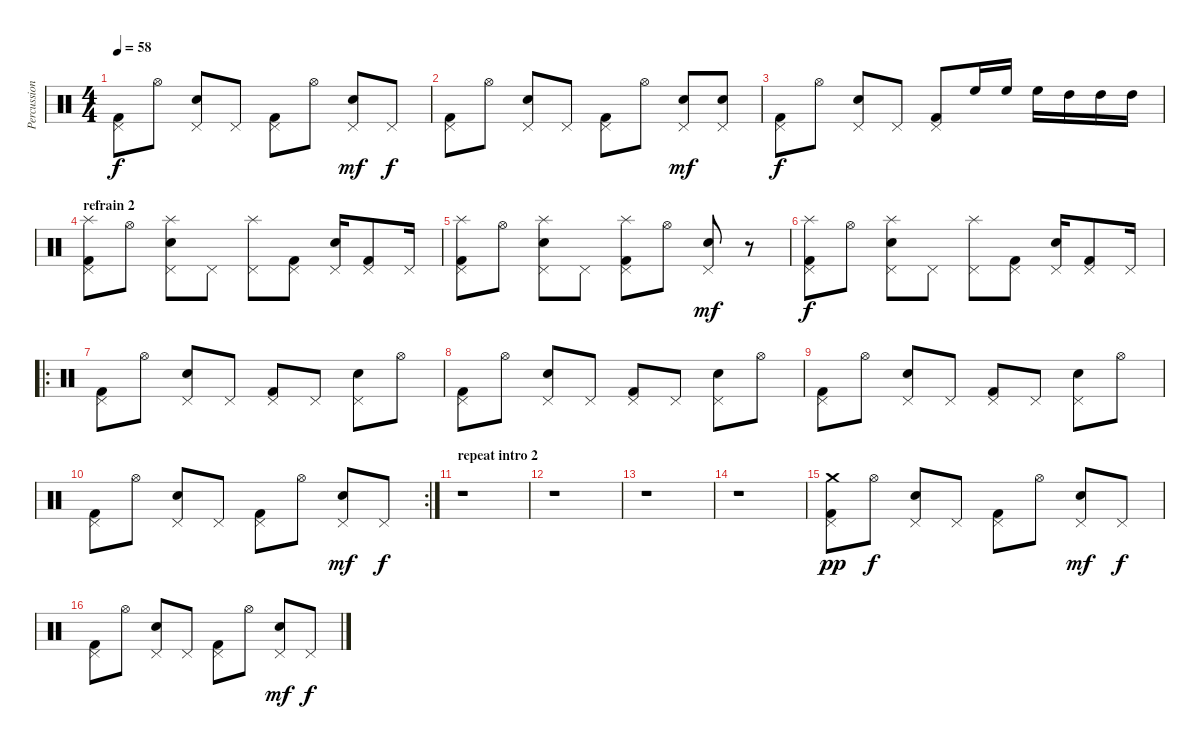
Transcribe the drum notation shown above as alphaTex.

\track ("Percussions" "Percussion") {instrument percussion}
\staff {score}
\articulation defaults
\ts (4 4)
\tempo 58
\clef neutral
\ks c
("Pedal Hi-Hat (hit)" "Kick (hit) 2").8{dy f} "Hi-Hat (open)".8 ("Pedal Hi-Hat (hit)" "Electric Snare (hit)").8 "Pedal Hi-Hat (hit)".8 ("Pedal Hi-Hat (hit)" "Kick (hit) 2").8 "Hi-Hat (open)".8 ("Pedal Hi-Hat (hit)" "Electric Snare (hit)").8{dy mf} "Pedal Hi-Hat (hit)".8{dy f} |
("Pedal Hi-Hat (hit)" "Kick (hit) 2").8 "Hi-Hat (open)".8 ("Pedal Hi-Hat (hit)" "Electric Snare (hit)").8 "Pedal Hi-Hat (hit)".8 ("Pedal Hi-Hat (hit)" "Kick (hit) 2").8 "Hi-Hat (open)".8 ("Pedal Hi-Hat (hit)" "Electric Snare (hit)").8{dy mf} ("Pedal Hi-Hat (hit)" "Electric Snare (hit)").8 |
("Pedal Hi-Hat (hit)" "Kick (hit) 2").8{dy f} "Hi-Hat (open)".8 ("Pedal Hi-Hat (hit)" "Electric Snare (hit)").8 "Pedal Hi-Hat (hit)".8 ("Pedal Hi-Hat (hit)" "Kick (hit) 2").8 "High Floor Tom (hit)".16 "High Floor Tom (hit)".16 "High Floor Tom (hit)".16 "High Tom (hit)".16 "High Tom (hit)".16 "High Tom (hit)".16 |
\section ("" "refrain 2")
("Pedal Hi-Hat (hit)" "Splash (hit)" "Kick (hit) 2").8 "Hi-Hat (open)".8 ("Pedal Hi-Hat (hit)" "Splash (hit)" "Electric Snare (hit)").8 "Pedal Hi-Hat (hit)".8 ("Pedal Hi-Hat (hit)" "Splash (hit)").8 ("Pedal Hi-Hat (hit)" "Kick (hit) 2").8 ("Pedal Hi-Hat (hit)" "Electric Snare (hit)").16 ("Pedal Hi-Hat (hit)" "Kick (hit) 2").8 "Pedal Hi-Hat (hit)".16 |
("Pedal Hi-Hat (hit)" "Splash (hit)" "Kick (hit) 2").8 "Hi-Hat (open)".8 ("Pedal Hi-Hat (hit)" "Splash (hit)" "Electric Snare (hit)").8 "Pedal Hi-Hat (hit)".8 ("Pedal Hi-Hat (hit)" "Splash (hit)" "Kick (hit) 2").8 "Hi-Hat (open)".8 ("Pedal Hi-Hat (hit)" "Electric Snare (hit)").8{dy mf} r.8 |
("Pedal Hi-Hat (hit)" "Splash (hit)" "Kick (hit) 2").8{dy f} "Hi-Hat (open)".8 ("Pedal Hi-Hat (hit)" "Splash (hit)" "Electric Snare (hit)").8 "Pedal Hi-Hat (hit)".8 ("Pedal Hi-Hat (hit)" "Splash (hit)").8 ("Pedal Hi-Hat (hit)" "Kick (hit) 2").8 ("Pedal Hi-Hat (hit)" "Electric Snare (hit)").16 ("Pedal Hi-Hat (hit)" "Kick (hit) 2").8 "Pedal Hi-Hat (hit)".16 |
\ro
("Pedal Hi-Hat (hit)" "Kick (hit) 2").8 "Hi-Hat (open)".8 ("Pedal Hi-Hat (hit)" "Electric Snare (hit)").8 "Pedal Hi-Hat (hit)".8 ("Pedal Hi-Hat (hit)" "Kick (hit) 2").8 "Pedal Hi-Hat (hit)".8 ("Pedal Hi-Hat (hit)" "Electric Snare (hit)").8 "Hi-Hat (open)".8 |
("Pedal Hi-Hat (hit)" "Kick (hit) 2").8 "Hi-Hat (open)".8 ("Pedal Hi-Hat (hit)" "Electric Snare (hit)").8 "Pedal Hi-Hat (hit)".8 ("Pedal Hi-Hat (hit)" "Kick (hit) 2").8 "Pedal Hi-Hat (hit)".8 ("Pedal Hi-Hat (hit)" "Electric Snare (hit)").8 "Hi-Hat (open)".8 |
("Pedal Hi-Hat (hit)" "Kick (hit) 2").8 "Hi-Hat (open)".8 ("Pedal Hi-Hat (hit)" "Electric Snare (hit)").8 "Pedal Hi-Hat (hit)".8 ("Pedal Hi-Hat (hit)" "Kick (hit) 2").8 "Pedal Hi-Hat (hit)".8 ("Pedal Hi-Hat (hit)" "Electric Snare (hit)").8 "Hi-Hat (open)".8 |
\rc 2
("Pedal Hi-Hat (hit)" "Kick (hit) 2").8 "Hi-Hat (open)".8 ("Pedal Hi-Hat (hit)" "Electric Snare (hit)").8 "Pedal Hi-Hat (hit)".8 ("Pedal Hi-Hat (hit)" "Kick (hit) 2").8 "Hi-Hat (open)".8 ("Pedal Hi-Hat (hit)" "Electric Snare (hit)").8{dy mf} "Pedal Hi-Hat (hit)".8{dy f} |
\section ("" "repeat intro 2")
r.1 |
r.1 |
r.1 |
r.1 |
("Pedal Hi-Hat (hit)" "Kick (hit) 2" "Crash medium (hit)").8{dy pp} "Hi-Hat (open)".8{dy f} ("Pedal Hi-Hat (hit)" "Electric Snare (hit)").8 "Pedal Hi-Hat (hit)".8 ("Pedal Hi-Hat (hit)" "Kick (hit) 2").8 "Hi-Hat (open)".8 ("Pedal Hi-Hat (hit)" "Electric Snare (hit)").8{dy mf} "Pedal Hi-Hat (hit)".8{dy f} |
("Pedal Hi-Hat (hit)" "Kick (hit) 2").8 "Hi-Hat (open)".8 ("Pedal Hi-Hat (hit)" "Electric Snare (hit)").8 "Pedal Hi-Hat (hit)".8 ("Pedal Hi-Hat (hit)" "Kick (hit) 2").8 "Hi-Hat (open)".8 ("Pedal Hi-Hat (hit)" "Electric Snare (hit)").8{dy mf} "Pedal Hi-Hat (hit)".8{dy f}
